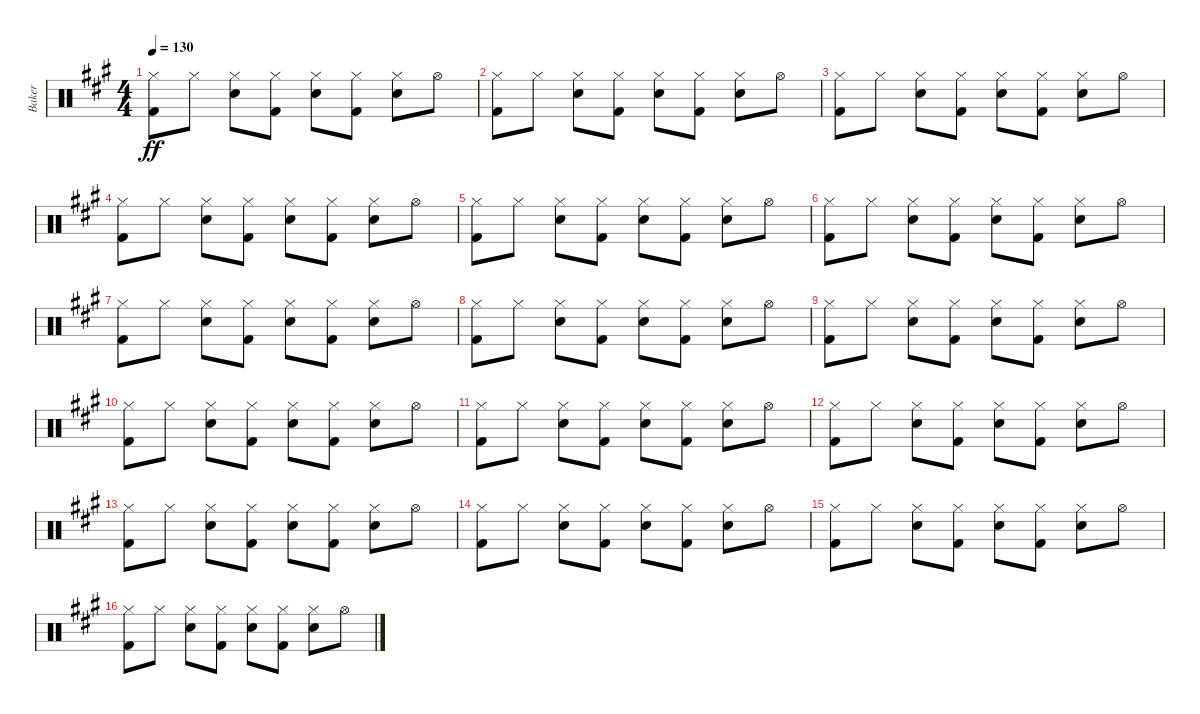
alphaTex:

\track ("Baker" "Baker") {instrument percussion}
\staff {score}
\articulation defaults
\ts (4 4)
\tempo 130
\clef neutral
\ks a
("Hi-Hat (closed)" "Kick (hit) 2").8{dy ff} "Hi-Hat (closed)".8 ("Hi-Hat (closed)" "Snare (hit) 2").8 ("Hi-Hat (closed)" "Kick (hit) 2").8 ("Hi-Hat (closed)" "Snare (hit) 2").8 ("Hi-Hat (closed)" "Kick (hit) 2").8 ("Hi-Hat (closed)" "Snare (hit) 2").8 "Hi-Hat (open)".8 |
("Hi-Hat (closed)" "Kick (hit) 2").8 "Hi-Hat (closed)".8 ("Hi-Hat (closed)" "Snare (hit) 2").8 ("Hi-Hat (closed)" "Kick (hit) 2").8 ("Hi-Hat (closed)" "Snare (hit) 2").8 ("Hi-Hat (closed)" "Kick (hit) 2").8 ("Hi-Hat (closed)" "Snare (hit) 2").8 "Hi-Hat (open)".8 |
("Hi-Hat (closed)" "Kick (hit) 2").8 "Hi-Hat (closed)".8 ("Hi-Hat (closed)" "Snare (hit) 2").8 ("Hi-Hat (closed)" "Kick (hit) 2").8 ("Hi-Hat (closed)" "Snare (hit) 2").8 ("Hi-Hat (closed)" "Kick (hit) 2").8 ("Hi-Hat (closed)" "Snare (hit) 2").8 "Hi-Hat (open)".8 |
("Hi-Hat (closed)" "Kick (hit) 2").8 "Hi-Hat (closed)".8 ("Hi-Hat (closed)" "Snare (hit) 2").8 ("Hi-Hat (closed)" "Kick (hit) 2").8 ("Hi-Hat (closed)" "Snare (hit) 2").8 ("Hi-Hat (closed)" "Kick (hit) 2").8 ("Hi-Hat (closed)" "Snare (hit) 2").8 "Hi-Hat (open)".8 |
("Hi-Hat (closed)" "Kick (hit) 2").8 "Hi-Hat (closed)".8 ("Hi-Hat (closed)" "Snare (hit) 2").8 ("Hi-Hat (closed)" "Kick (hit) 2").8 ("Hi-Hat (closed)" "Snare (hit) 2").8 ("Hi-Hat (closed)" "Kick (hit) 2").8 ("Hi-Hat (closed)" "Snare (hit) 2").8 "Hi-Hat (open)".8 |
("Hi-Hat (closed)" "Kick (hit) 2").8 "Hi-Hat (closed)".8 ("Hi-Hat (closed)" "Snare (hit) 2").8 ("Hi-Hat (closed)" "Kick (hit) 2").8 ("Hi-Hat (closed)" "Snare (hit) 2").8 ("Hi-Hat (closed)" "Kick (hit) 2").8 ("Hi-Hat (closed)" "Snare (hit) 2").8 "Hi-Hat (open)".8 |
("Hi-Hat (closed)" "Kick (hit) 2").8 "Hi-Hat (closed)".8 ("Hi-Hat (closed)" "Snare (hit) 2").8 ("Hi-Hat (closed)" "Kick (hit) 2").8 ("Hi-Hat (closed)" "Snare (hit) 2").8 ("Hi-Hat (closed)" "Kick (hit) 2").8 ("Hi-Hat (closed)" "Snare (hit) 2").8 "Hi-Hat (open)".8 |
("Hi-Hat (closed)" "Kick (hit) 2").8 "Hi-Hat (closed)".8 ("Hi-Hat (closed)" "Snare (hit) 2").8 ("Hi-Hat (closed)" "Kick (hit) 2").8 ("Hi-Hat (closed)" "Snare (hit) 2").8 ("Hi-Hat (closed)" "Kick (hit) 2").8 ("Hi-Hat (closed)" "Snare (hit) 2").8 "Hi-Hat (open)".8 |
("Hi-Hat (closed)" "Kick (hit) 2").8 "Hi-Hat (closed)".8 ("Hi-Hat (closed)" "Snare (hit) 2").8 ("Hi-Hat (closed)" "Kick (hit) 2").8 ("Hi-Hat (closed)" "Snare (hit) 2").8 ("Hi-Hat (closed)" "Kick (hit) 2").8 ("Hi-Hat (closed)" "Snare (hit) 2").8 "Hi-Hat (open)".8 |
("Hi-Hat (closed)" "Kick (hit) 2").8 "Hi-Hat (closed)".8 ("Hi-Hat (closed)" "Snare (hit) 2").8 ("Hi-Hat (closed)" "Kick (hit) 2").8 ("Hi-Hat (closed)" "Snare (hit) 2").8 ("Hi-Hat (closed)" "Kick (hit) 2").8 ("Hi-Hat (closed)" "Snare (hit) 2").8 "Hi-Hat (open)".8 |
("Hi-Hat (closed)" "Kick (hit) 2").8 "Hi-Hat (closed)".8 ("Hi-Hat (closed)" "Snare (hit) 2").8 ("Hi-Hat (closed)" "Kick (hit) 2").8 ("Hi-Hat (closed)" "Snare (hit) 2").8 ("Hi-Hat (closed)" "Kick (hit) 2").8 ("Hi-Hat (closed)" "Snare (hit) 2").8 "Hi-Hat (open)".8 |
("Hi-Hat (closed)" "Kick (hit) 2").8 "Hi-Hat (closed)".8 ("Hi-Hat (closed)" "Snare (hit) 2").8 ("Hi-Hat (closed)" "Kick (hit) 2").8 ("Hi-Hat (closed)" "Snare (hit) 2").8 ("Hi-Hat (closed)" "Kick (hit) 2").8 ("Hi-Hat (closed)" "Snare (hit) 2").8 "Hi-Hat (open)".8 |
("Hi-Hat (closed)" "Kick (hit) 2").8 "Hi-Hat (closed)".8 ("Hi-Hat (closed)" "Snare (hit) 2").8 ("Hi-Hat (closed)" "Kick (hit) 2").8 ("Hi-Hat (closed)" "Snare (hit) 2").8 ("Hi-Hat (closed)" "Kick (hit) 2").8 ("Hi-Hat (closed)" "Snare (hit) 2").8 "Hi-Hat (open)".8 |
("Hi-Hat (closed)" "Kick (hit) 2").8 "Hi-Hat (closed)".8 ("Hi-Hat (closed)" "Snare (hit) 2").8 ("Hi-Hat (closed)" "Kick (hit) 2").8 ("Hi-Hat (closed)" "Snare (hit) 2").8 ("Hi-Hat (closed)" "Kick (hit) 2").8 ("Hi-Hat (closed)" "Snare (hit) 2").8 "Hi-Hat (open)".8 |
("Hi-Hat (closed)" "Kick (hit) 2").8 "Hi-Hat (closed)".8 ("Hi-Hat (closed)" "Snare (hit) 2").8 ("Hi-Hat (closed)" "Kick (hit) 2").8 ("Hi-Hat (closed)" "Snare (hit) 2").8 ("Hi-Hat (closed)" "Kick (hit) 2").8 ("Hi-Hat (closed)" "Snare (hit) 2").8 "Hi-Hat (open)".8 |
("Hi-Hat (closed)" "Kick (hit) 2").8 "Hi-Hat (closed)".8 ("Hi-Hat (closed)" "Snare (hit) 2").8 ("Hi-Hat (closed)" "Kick (hit) 2").8 ("Hi-Hat (closed)" "Snare (hit) 2").8 ("Hi-Hat (closed)" "Kick (hit) 2").8 ("Hi-Hat (closed)" "Snare (hit) 2").8 "Hi-Hat (open)".8
